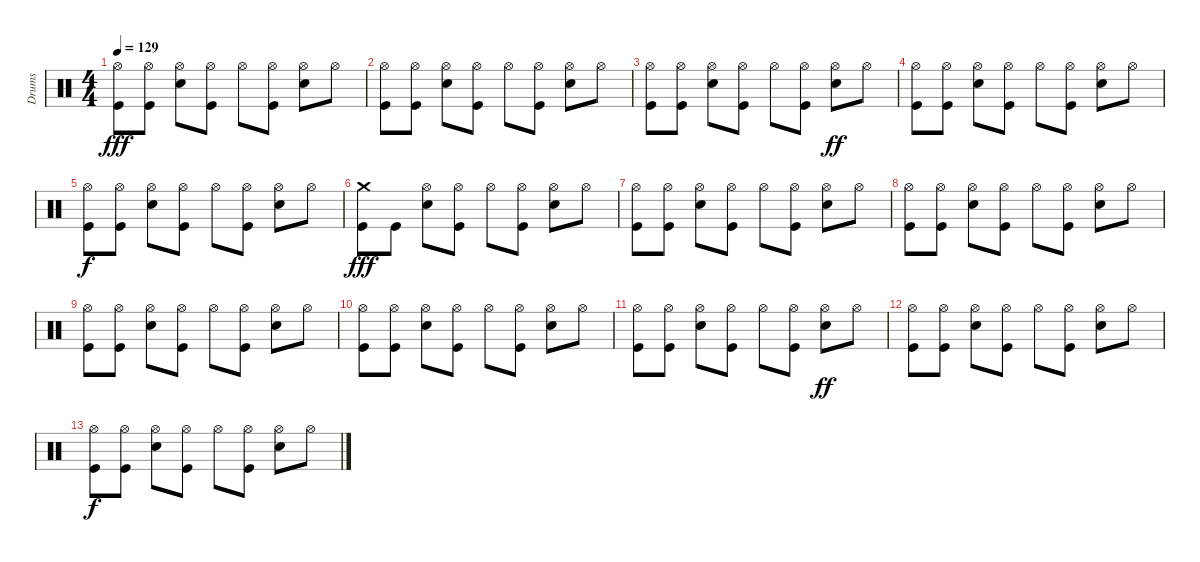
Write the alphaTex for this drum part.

\track ("Drums" "Drums") {instrument percussion}
\staff {score}
\articulation defaults
\ts (4 4)
\tempo 129
\clef neutral
\ks c
("Hi-Hat (open)" "Kick (hit)").8{dy fff} ("Hi-Hat (open)" "Kick (hit)").8 ("Snare (hit) 2" "Hi-Hat (open)").8 ("Kick (hit)" "Hi-Hat (open)").8 "Hi-Hat (open)".8 ("Kick (hit)" "Hi-Hat (open)").8 ("Snare (hit) 2" "Hi-Hat (open)").8 "Hi-Hat (open)".8 |
("Hi-Hat (open)" "Kick (hit)").8 ("Hi-Hat (open)" "Kick (hit)").8 ("Snare (hit) 2" "Hi-Hat (open)").8 ("Kick (hit)" "Hi-Hat (open)").8 "Hi-Hat (open)".8 ("Kick (hit)" "Hi-Hat (open)").8 ("Snare (hit) 2" "Hi-Hat (open)").8 "Hi-Hat (open)".8 |
("Hi-Hat (open)" "Kick (hit)").8 ("Hi-Hat (open)" "Kick (hit)").8 ("Snare (hit) 2" "Hi-Hat (open)").8 ("Kick (hit)" "Hi-Hat (open)").8 "Hi-Hat (open)".8 ("Kick (hit)" "Hi-Hat (open)").8 ("Snare (hit) 2" "Hi-Hat (open)").8{dy ff} "Hi-Hat (open)".8 |
("Hi-Hat (open)" "Kick (hit)").8 ("Hi-Hat (open)" "Kick (hit)").8 ("Snare (hit) 2" "Hi-Hat (open)").8 ("Kick (hit)" "Hi-Hat (open)").8 "Hi-Hat (open)".8 ("Kick (hit)" "Hi-Hat (open)").8 ("Snare (hit) 2" "Hi-Hat (open)").8 "Hi-Hat (open)".8 |
("Hi-Hat (open)" "Kick (hit)").8{dy f} ("Hi-Hat (open)" "Kick (hit)").8 ("Snare (hit) 2" "Hi-Hat (open)").8 ("Kick (hit)" "Hi-Hat (open)").8 "Hi-Hat (open)".8 ("Kick (hit)" "Hi-Hat (open)").8 ("Snare (hit) 2" "Hi-Hat (open)").8 "Hi-Hat (open)".8 |
("Kick (hit)" "Crash medium (hit)").8{dy fff} "Kick (hit)".8 ("Snare (hit) 2" "Hi-Hat (open)").8 ("Kick (hit)" "Hi-Hat (open)").8 "Hi-Hat (open)".8 ("Kick (hit)" "Hi-Hat (open)").8 ("Snare (hit) 2" "Hi-Hat (open)").8 "Hi-Hat (open)".8 |
("Hi-Hat (open)" "Kick (hit)").8 ("Hi-Hat (open)" "Kick (hit)").8 ("Snare (hit) 2" "Hi-Hat (open)").8 ("Kick (hit)" "Hi-Hat (open)").8 "Hi-Hat (open)".8 ("Kick (hit)" "Hi-Hat (open)").8 ("Snare (hit) 2" "Hi-Hat (open)").8 "Hi-Hat (open)".8 |
("Hi-Hat (open)" "Kick (hit)").8 ("Hi-Hat (open)" "Kick (hit)").8 ("Snare (hit) 2" "Hi-Hat (open)").8 ("Kick (hit)" "Hi-Hat (open)").8 "Hi-Hat (open)".8 ("Kick (hit)" "Hi-Hat (open)").8 ("Snare (hit) 2" "Hi-Hat (open)").8 "Hi-Hat (open)".8 |
("Hi-Hat (open)" "Kick (hit)").8 ("Hi-Hat (open)" "Kick (hit)").8 ("Snare (hit) 2" "Hi-Hat (open)").8 ("Kick (hit)" "Hi-Hat (open)").8 "Hi-Hat (open)".8 ("Kick (hit)" "Hi-Hat (open)").8 ("Snare (hit) 2" "Hi-Hat (open)").8 "Hi-Hat (open)".8 |
("Hi-Hat (open)" "Kick (hit)").8 ("Hi-Hat (open)" "Kick (hit)").8 ("Snare (hit) 2" "Hi-Hat (open)").8 ("Kick (hit)" "Hi-Hat (open)").8 "Hi-Hat (open)".8 ("Kick (hit)" "Hi-Hat (open)").8 ("Snare (hit) 2" "Hi-Hat (open)").8 "Hi-Hat (open)".8 |
("Hi-Hat (open)" "Kick (hit)").8 ("Hi-Hat (open)" "Kick (hit)").8 ("Snare (hit) 2" "Hi-Hat (open)").8 ("Kick (hit)" "Hi-Hat (open)").8 "Hi-Hat (open)".8 ("Kick (hit)" "Hi-Hat (open)").8 ("Snare (hit) 2" "Hi-Hat (open)").8{dy ff} "Hi-Hat (open)".8 |
("Hi-Hat (open)" "Kick (hit)").8 ("Hi-Hat (open)" "Kick (hit)").8 ("Snare (hit) 2" "Hi-Hat (open)").8 ("Kick (hit)" "Hi-Hat (open)").8 "Hi-Hat (open)".8 ("Kick (hit)" "Hi-Hat (open)").8 ("Snare (hit) 2" "Hi-Hat (open)").8 "Hi-Hat (open)".8 |
("Hi-Hat (open)" "Kick (hit)").8{dy f} ("Hi-Hat (open)" "Kick (hit)").8 ("Snare (hit) 2" "Hi-Hat (open)").8 ("Kick (hit)" "Hi-Hat (open)").8 "Hi-Hat (open)".8 ("Kick (hit)" "Hi-Hat (open)").8 ("Snare (hit) 2" "Hi-Hat (open)").8 "Hi-Hat (open)".8
